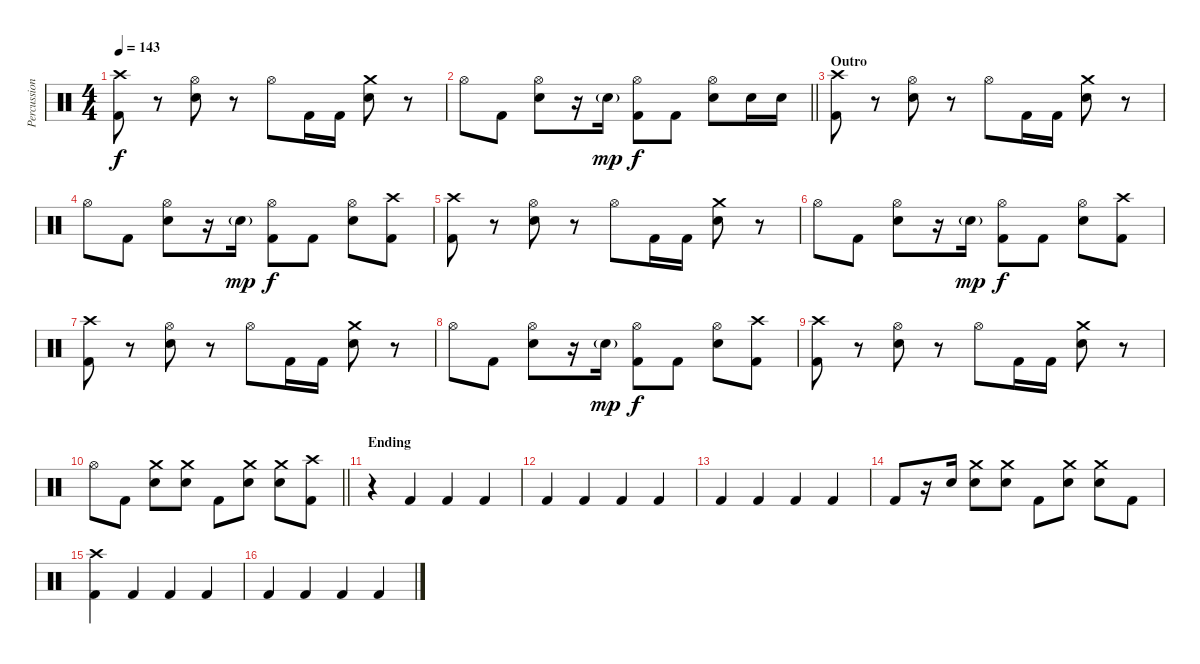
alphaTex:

\track ("Percussion" "Percussion") {instrument percussion}
\staff {score}
\articulation defaults
\ts (4 4)
\tempo 143
\clef neutral
\ks c
("Crash high (hit)" "Kick (hit) 2").8{dy f} r.8 ("Hi-Hat (open)" "Snare (hit) 2").8 r.8 "Hi-Hat (open)".8 "Kick (hit) 2".16 "Kick (hit) 2".16 ("Crash medium (hit)" "Snare (hit) 2").8 r.8 |
\barLineRight lightlight "Hi-Hat (open)".8 "Kick (hit) 2".8
("Hi-Hat (open)" "Snare (hit) 2").8 r.16 "Snare (hit) 2"{g}.16{dy mp} ("Hi-Hat (open)" "Kick (hit) 2").8{dy f} "Kick (hit) 2".8 ("Hi-Hat (open)" "Snare (hit) 2").8 "Snare (hit) 2".16 "Snare (hit) 2".16 |
\section ("" "Outro")
("Crash high (hit)" "Kick (hit) 2").8 r.8 ("Hi-Hat (open)" "Snare (hit) 2").8 r.8 "Hi-Hat (open)".8 "Kick (hit) 2".16 "Kick (hit) 2".16 ("Crash medium (hit)" "Snare (hit) 2").8 r.8 |
"Hi-Hat (open)".8 "Kick (hit) 2".8 ("Hi-Hat (open)" "Snare (hit) 2").8 r.16 "Snare (hit) 2"{g}.16{dy mp} ("Hi-Hat (open)" "Kick (hit) 2").8{dy f} "Kick (hit) 2".8 ("Hi-Hat (open)" "Snare (hit) 2").8 ("Crash high (hit)" "Kick (hit) 2").8 |
("Crash high (hit)" "Kick (hit) 2").8 r.8 ("Hi-Hat (open)" "Snare (hit) 2").8 r.8 "Hi-Hat (open)".8 "Kick (hit) 2".16 "Kick (hit) 2".16 ("Crash medium (hit)" "Snare (hit) 2").8 r.8 |
"Hi-Hat (open)".8 "Kick (hit) 2".8 ("Hi-Hat (open)" "Snare (hit) 2").8 r.16 "Snare (hit) 2"{g}.16{dy mp} ("Hi-Hat (open)" "Kick (hit) 2").8{dy f} "Kick (hit) 2".8 ("Hi-Hat (open)" "Snare (hit) 2").8 ("Crash high (hit)" "Kick (hit) 2").8 |
("Crash high (hit)" "Kick (hit) 2").8 r.8 ("Hi-Hat (open)" "Snare (hit) 2").8 r.8 "Hi-Hat (open)".8 "Kick (hit) 2".16 "Kick (hit) 2".16 ("Crash medium (hit)" "Snare (hit) 2").8 r.8 |
"Hi-Hat (open)".8 "Kick (hit) 2".8 ("Hi-Hat (open)" "Snare (hit) 2").8 r.16 "Snare (hit) 2"{g}.16{dy mp} ("Hi-Hat (open)" "Kick (hit) 2").8{dy f} "Kick (hit) 2".8 ("Hi-Hat (open)" "Snare (hit) 2").8 ("Crash high (hit)" "Kick (hit) 2").8 |
("Crash high (hit)" "Kick (hit) 2").8 r.8 ("Hi-Hat (open)" "Snare (hit) 2").8 r.8 "Hi-Hat (open)".8 "Kick (hit) 2".16 "Kick (hit) 2".16 ("Crash medium (hit)" "Snare (hit) 2").8 r.8 |
\barLineRight lightlight "Hi-Hat (open)".8 "Kick (hit) 2".8
("Crash medium (hit)" "Snare (hit) 2").8 ("Crash medium (hit)" "Snare (hit) 2").8 "Kick (hit) 2".8 ("Crash medium (hit)" "Snare (hit) 2").8 ("Crash medium (hit)" "Snare (hit) 2").8 ("Crash high (hit)" "Kick (hit) 2").8 |
\section ("" "Ending")
r.4 "Kick (hit) 2".4 "Kick (hit) 2".4 "Kick (hit) 2".4 |
"Kick (hit) 2".4 "Kick (hit) 2".4 "Kick (hit) 2".4 "Kick (hit) 2".4 |
"Kick (hit) 2".4 "Kick (hit) 2".4 "Kick (hit) 2".4 "Kick (hit) 2".4 |
"Kick (hit) 2".8 r.16 "Snare (hit) 2".16 ("Crash medium (hit)" "Snare (hit) 2").8 ("Crash medium (hit)" "Snare (hit) 2").8 "Kick (hit) 2".8 ("Crash medium (hit)" "Snare (hit) 2").8 ("Crash medium (hit)" "Snare (hit) 2").8 "Kick (hit) 2".8 |
("Crash high (hit)" "Kick (hit) 2").4 "Kick (hit) 2".4 "Kick (hit) 2".4 "Kick (hit) 2".4 |
"Kick (hit) 2".4 "Kick (hit) 2".4 "Kick (hit) 2".4 "Kick (hit) 2".4
